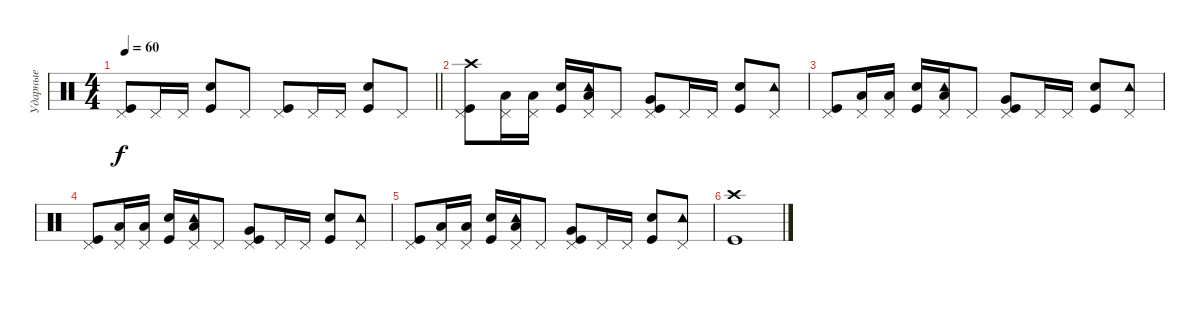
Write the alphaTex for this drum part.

\track ("Ударные" "Ударные") {instrument percussion}
\staff {score}
\articulation defaults
\ts (4 4)
\tempo 60
\clef neutral
\barLineRight lightlight
\ks c
("Pedal Hi-Hat (hit)" "Kick (hit)").8{dy f} "Pedal Hi-Hat (hit)".16 "Pedal Hi-Hat (hit)".16 ("Kick (hit)" "Snare (hit) 2").8 "Pedal Hi-Hat (hit)".8 ("Pedal Hi-Hat (hit)" "Kick (hit)").8 "Pedal Hi-Hat (hit)".16 "Pedal Hi-Hat (hit)".16 ("Kick (hit)" "Snare (hit) 2").8 "Pedal Hi-Hat (hit)".8 |
("Pedal Hi-Hat (hit)" "Kick (hit)" "Crash high (hit)").8 ("Pedal Hi-Hat (hit)" "Low Tom (hit)").16 ("Pedal Hi-Hat (hit)" "Low Tom (hit)").16 ("Kick (hit)" "Snare (hit) 2").16 ("Pedal Hi-Hat (hit)" "Low Tom (hit)" "Tambourine (hit)").16 "Pedal Hi-Hat (hit)".8 ("Pedal Hi-Hat (hit)" "Kick (hit)" "Very Low Tom (hit)").8 "Pedal Hi-Hat (hit)".16 "Pedal Hi-Hat (hit)".16 ("Kick (hit)" "Snare (hit) 2").8 ("Pedal Hi-Hat (hit)" "Tambourine (hit)").8 |
("Pedal Hi-Hat (hit)" "Kick (hit)").8 ("Pedal Hi-Hat (hit)" "Low Tom (hit)").16 ("Pedal Hi-Hat (hit)" "Low Tom (hit)").16 ("Kick (hit)" "Snare (hit) 2").16 ("Pedal Hi-Hat (hit)" "Low Tom (hit)" "Tambourine (hit)").16 "Pedal Hi-Hat (hit)".8 ("Pedal Hi-Hat (hit)" "Kick (hit)" "Very Low Tom (hit)").8 "Pedal Hi-Hat (hit)".16 "Pedal Hi-Hat (hit)".16 ("Kick (hit)" "Snare (hit) 2").8 ("Pedal Hi-Hat (hit)" "Tambourine (hit)").8 |
("Pedal Hi-Hat (hit)" "Kick (hit)").8 ("Pedal Hi-Hat (hit)" "Low Tom (hit)").16 ("Pedal Hi-Hat (hit)" "Low Tom (hit)").16 ("Kick (hit)" "Snare (hit) 2").16 ("Pedal Hi-Hat (hit)" "Low Tom (hit)" "Tambourine (hit)").16 "Pedal Hi-Hat (hit)".8 ("Pedal Hi-Hat (hit)" "Kick (hit)" "Very Low Tom (hit)").8 "Pedal Hi-Hat (hit)".16 "Pedal Hi-Hat (hit)".16 ("Kick (hit)" "Snare (hit) 2").8 ("Pedal Hi-Hat (hit)" "Tambourine (hit)").8 |
("Pedal Hi-Hat (hit)" "Kick (hit)").8 ("Pedal Hi-Hat (hit)" "Low Tom (hit)").16 ("Pedal Hi-Hat (hit)" "Low Tom (hit)").16 ("Kick (hit)" "Snare (hit) 2").16 ("Pedal Hi-Hat (hit)" "Low Tom (hit)" "Tambourine (hit)").16 "Pedal Hi-Hat (hit)".8 ("Pedal Hi-Hat (hit)" "Kick (hit)" "Very Low Tom (hit)").8 "Pedal Hi-Hat (hit)".16 "Pedal Hi-Hat (hit)".16 ("Kick (hit)" "Snare (hit) 2").8 ("Pedal Hi-Hat (hit)" "Tambourine (hit)").8 |
("Kick (hit)" "Crash high (hit)").1
